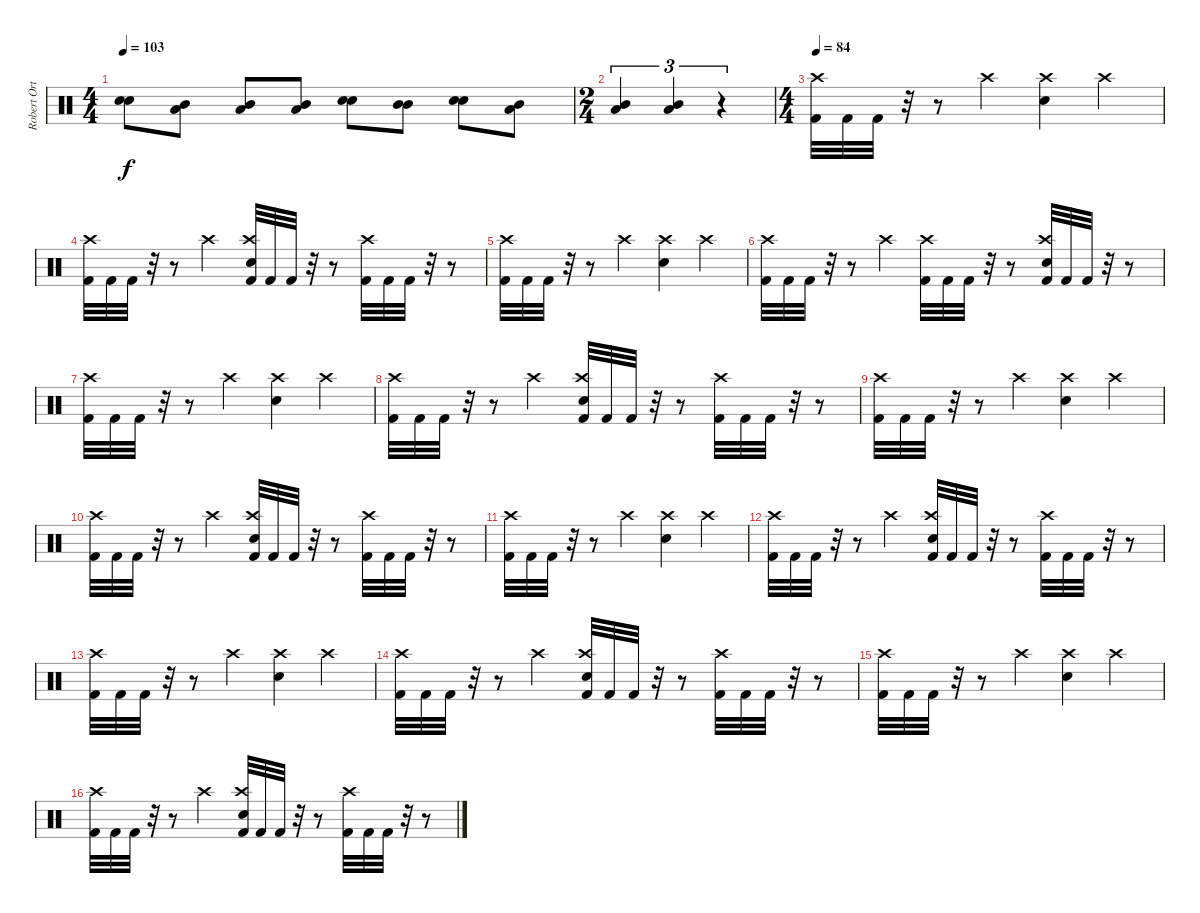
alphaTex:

\track ("Robert Ortiz - Drums" "Robert Ort") {instrument percussion}
\staff {score}
\articulation defaults
\ts (4 4)
\tempo 103
\clef neutral
\ks c
("Electric Snare (hit)" "Electric Snare (hit)").8{dy f} ("Low Tom (hit)" "Mid Tom (hit)").8 ("Low Tom (hit)" "Mid Tom (hit)").8 ("Low Tom (hit)" "Mid Tom (hit)").8 ("Electric Snare (hit)" "Electric Snare (hit)").8 ("Mid Tom (hit)" "Mid Tom (hit)").8 ("Electric Snare (hit)" "Electric Snare (hit)").8 ("Low Tom (hit)" "Mid Tom (hit)").8 |
\ts (2 4)
("Mid Tom (hit)" "Low Tom (hit)").4{tu (3 2)} ("Low Tom (hit)" "Mid Tom (hit)").4{tu (3 2)} r.4{tu (3 2)} |
\ts (4 4)
\tempo 84
("Crash high (hit)" "Kick (hit) 2").32 "Kick (hit) 2".32 "Kick (hit) 2".32 r.32 r.8 "Crash high (hit)".4 ("Crash high (hit)" "Electric Snare (hit)").4 "Crash high (hit)".4 |
("Crash high (hit)" "Kick (hit) 2").32 "Kick (hit) 2".32 "Kick (hit) 2".32 r.32 r.8 "Crash high (hit)".4 ("Crash high (hit)" "Electric Snare (hit)" "Kick (hit) 2").32 "Kick (hit) 2".32 "Kick (hit) 2".32 r.32 r.8 ("Crash high (hit)" "Kick (hit) 2").32 "Kick (hit) 2".32 "Kick (hit) 2".32 r.32 r.8 |
("Crash high (hit)" "Kick (hit) 2").32 "Kick (hit) 2".32 "Kick (hit) 2".32 r.32 r.8 "Crash high (hit)".4 ("Crash high (hit)" "Electric Snare (hit)").4 "Crash high (hit)".4 |
("Crash high (hit)" "Kick (hit) 2").32 "Kick (hit) 2".32 "Kick (hit) 2".32 r.32 r.8 "Crash high (hit)".4 ("Crash high (hit)" "Kick (hit) 2").32 "Kick (hit) 2".32 "Kick (hit) 2".32 r.32 r.8 ("Crash high (hit)" "Electric Snare (hit)" "Kick (hit) 2").32 "Kick (hit) 2".32 "Kick (hit) 2".32 r.32 r.8 |
("Crash high (hit)" "Kick (hit) 2").32 "Kick (hit) 2".32 "Kick (hit) 2".32 r.32 r.8 "Crash high (hit)".4 ("Crash high (hit)" "Electric Snare (hit)").4 "Crash high (hit)".4 |
("Crash high (hit)" "Kick (hit) 2").32 "Kick (hit) 2".32 "Kick (hit) 2".32 r.32 r.8 "Crash high (hit)".4 ("Crash high (hit)" "Electric Snare (hit)" "Kick (hit) 2").32 "Kick (hit) 2".32 "Kick (hit) 2".32 r.32 r.8 ("Crash high (hit)" "Kick (hit) 2").32 "Kick (hit) 2".32 "Kick (hit) 2".32 r.32 r.8 |
("Crash high (hit)" "Kick (hit) 2").32 "Kick (hit) 2".32 "Kick (hit) 2".32 r.32 r.8 "Crash high (hit)".4 ("Crash high (hit)" "Electric Snare (hit)").4 "Crash high (hit)".4 |
("Crash high (hit)" "Kick (hit) 2").32 "Kick (hit) 2".32 "Kick (hit) 2".32 r.32 r.8 "Crash high (hit)".4 ("Crash high (hit)" "Electric Snare (hit)" "Kick (hit) 2").32 "Kick (hit) 2".32 "Kick (hit) 2".32 r.32 r.8 ("Crash high (hit)" "Kick (hit) 2").32 "Kick (hit) 2".32 "Kick (hit) 2".32 r.32 r.8 |
("Crash high (hit)" "Kick (hit) 2").32 "Kick (hit) 2".32 "Kick (hit) 2".32 r.32 r.8 "Crash high (hit)".4 ("Crash high (hit)" "Electric Snare (hit)").4 "Crash high (hit)".4 |
("Crash high (hit)" "Kick (hit) 2").32 "Kick (hit) 2".32 "Kick (hit) 2".32 r.32 r.8 "Crash high (hit)".4 ("Crash high (hit)" "Electric Snare (hit)" "Kick (hit) 2").32 "Kick (hit) 2".32 "Kick (hit) 2".32 r.32 r.8 ("Crash high (hit)" "Kick (hit) 2").32 "Kick (hit) 2".32 "Kick (hit) 2".32 r.32 r.8 |
("Crash high (hit)" "Kick (hit) 2").32 "Kick (hit) 2".32 "Kick (hit) 2".32 r.32 r.8 "Crash high (hit)".4 ("Crash high (hit)" "Electric Snare (hit)").4 "Crash high (hit)".4 |
("Crash high (hit)" "Kick (hit) 2").32 "Kick (hit) 2".32 "Kick (hit) 2".32 r.32 r.8 "Crash high (hit)".4 ("Crash high (hit)" "Electric Snare (hit)" "Kick (hit) 2").32 "Kick (hit) 2".32 "Kick (hit) 2".32 r.32 r.8 ("Crash high (hit)" "Kick (hit) 2").32 "Kick (hit) 2".32 "Kick (hit) 2".32 r.32 r.8 |
("Crash high (hit)" "Kick (hit) 2").32 "Kick (hit) 2".32 "Kick (hit) 2".32 r.32 r.8 "Crash high (hit)".4 ("Crash high (hit)" "Electric Snare (hit)").4 "Crash high (hit)".4 |
("Crash high (hit)" "Kick (hit) 2").32 "Kick (hit) 2".32 "Kick (hit) 2".32 r.32 r.8 "Crash high (hit)".4 ("Crash high (hit)" "Electric Snare (hit)" "Kick (hit) 2").32 "Kick (hit) 2".32 "Kick (hit) 2".32 r.32 r.8 ("Crash high (hit)" "Kick (hit) 2").32 "Kick (hit) 2".32 "Kick (hit) 2".32 r.32 r.8
